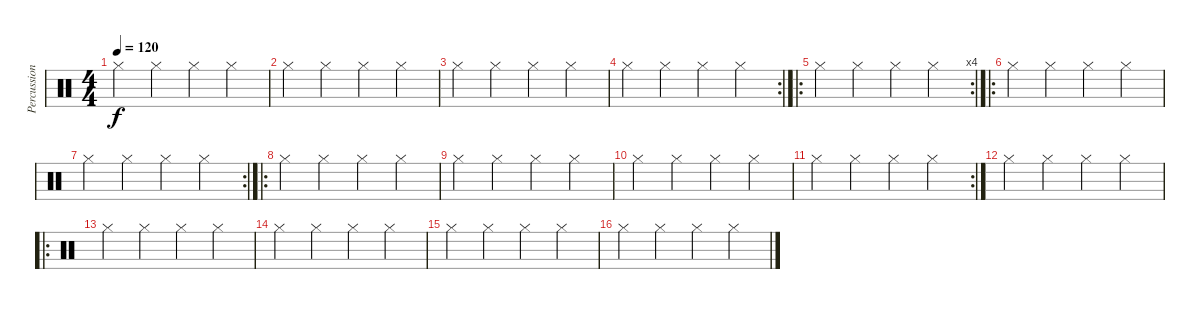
\track ("Percussioni" "Percussion") {instrument percussion}
\staff {score}
\articulation defaults
\ts (4 4)
\tempo 120
\clef neutral
\ks c "Hi-Hat (closed)".4{dy f} "Hi-Hat (closed)".4 "Hi-Hat (closed)".4 "Hi-Hat (closed)".4
|
"Hi-Hat (closed)".4 "Hi-Hat (closed)".4 "Hi-Hat (closed)".4 "Hi-Hat (closed)".4 |
"Hi-Hat (closed)".4 "Hi-Hat (closed)".4 "Hi-Hat (closed)".4 "Hi-Hat (closed)".4 |
\rc 2 "Hi-Hat (closed)".4 "Hi-Hat (closed)".4 "Hi-Hat (closed)".4 "Hi-Hat (closed)".4
|
\ro
\rc 4 "Hi-Hat (closed)".4 "Hi-Hat (closed)".4 "Hi-Hat (closed)".4 "Hi-Hat (closed)".4
|
\ro "Hi-Hat (closed)".4 "Hi-Hat (closed)".4 "Hi-Hat (closed)".4 "Hi-Hat (closed)".4
|
\rc 2 "Hi-Hat (closed)".4 "Hi-Hat (closed)".4 "Hi-Hat (closed)".4 "Hi-Hat (closed)".4
|
\ro "Hi-Hat (closed)".4 "Hi-Hat (closed)".4 "Hi-Hat (closed)".4 "Hi-Hat (closed)".4
|
"Hi-Hat (closed)".4 "Hi-Hat (closed)".4 "Hi-Hat (closed)".4 "Hi-Hat (closed)".4 |
"Hi-Hat (closed)".4 "Hi-Hat (closed)".4 "Hi-Hat (closed)".4 "Hi-Hat (closed)".4 |
\rc 2 "Hi-Hat (closed)".4 "Hi-Hat (closed)".4 "Hi-Hat (closed)".4 "Hi-Hat (closed)".4
|
"Hi-Hat (closed)".4 "Hi-Hat (closed)".4 "Hi-Hat (closed)".4 "Hi-Hat (closed)".4 |
\ro "Hi-Hat (closed)".4 "Hi-Hat (closed)".4 "Hi-Hat (closed)".4 "Hi-Hat (closed)".4
|
"Hi-Hat (closed)".4 "Hi-Hat (closed)".4 "Hi-Hat (closed)".4 "Hi-Hat (closed)".4 |
"Hi-Hat (closed)".4 "Hi-Hat (closed)".4 "Hi-Hat (closed)".4 "Hi-Hat (closed)".4 |
"Hi-Hat (closed)".4 "Hi-Hat (closed)".4 "Hi-Hat (closed)".4 "Hi-Hat (closed)".4
